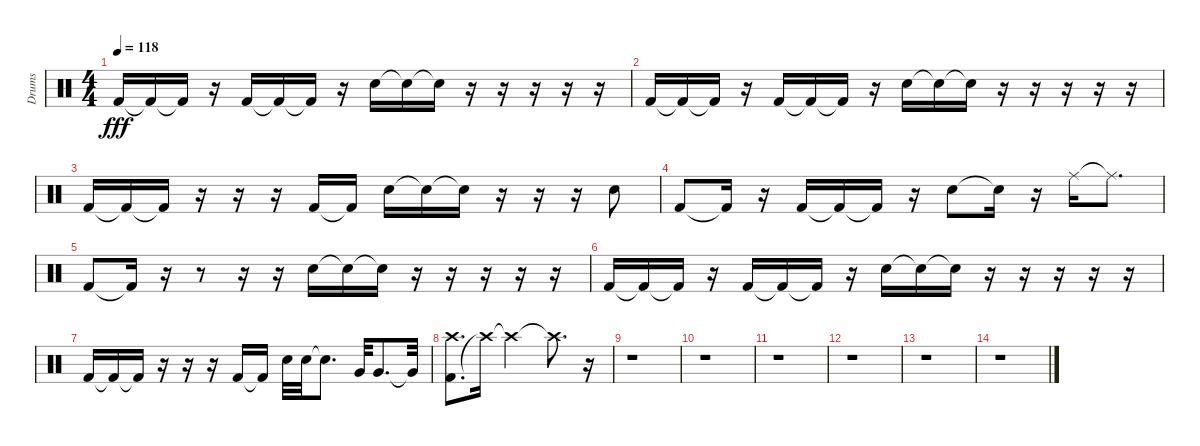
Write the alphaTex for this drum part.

\track ("Drums" "Drums") {instrument percussion}
\staff {score}
\articulation defaults
\ts (4 4)
\tempo 118
\clef neutral
\ks c "Kick (hit) 2".16{dy fff} "Kick (hit) 2"{t}.16 "Kick (hit) 2"{t}.16
r.16 "Kick (hit) 2".16 "Kick (hit) 2"{t}.16 "Kick (hit) 2"{t}.16 r.16 "Snare (hit) 2".16 "Snare (hit) 2"{t}.16 "Snare (hit) 2"{t}.16 r.16 r.16 r.16 r.16 r.16 |
"Kick (hit) 2".16 "Kick (hit) 2"{t}.16 "Kick (hit) 2"{t}.16 r.16 "Kick (hit) 2".16 "Kick (hit) 2"{t}.16 "Kick (hit) 2"{t}.16 r.16 "Snare (hit) 2".16 "Snare (hit) 2"{t}.16 "Snare (hit) 2"{t}.16 r.16 r.16 r.16 r.16 r.16 |
"Kick (hit) 2".16 "Kick (hit) 2"{t}.16 "Kick (hit) 2"{t}.16 r.16 r.16 r.16 "Kick (hit) 2".16 "Kick (hit) 2"{t}.16 "Snare (hit) 2".16 "Snare (hit) 2"{t}.16 "Snare (hit) 2"{t}.16 r.16 r.16 r.16 "Snare (hit) 2".8 |
"Kick (hit) 2".8 "Kick (hit) 2"{t}.16 r.16 "Kick (hit) 2".16 "Kick (hit) 2"{t}.16 "Kick (hit) 2"{t}.16 r.16 "Snare (hit) 2".8 "Snare (hit) 2"{t}.16 r.16 "Ride (middle)".16 "Ride (middle)"{t}.8{d} |
"Kick (hit) 2".8 "Kick (hit) 2"{t}.16 r.16 r.8 r.16 r.16 "Snare (hit) 2".16 "Snare (hit) 2"{t}.16 "Snare (hit) 2"{t}.16 r.16 r.16 r.16 r.16 r.16 |
"Kick (hit) 2".16 "Kick (hit) 2"{t}.16 "Kick (hit) 2"{t}.16 r.16 "Kick (hit) 2".16 "Kick (hit) 2"{t}.16 "Kick (hit) 2"{t}.16 r.16 "Snare (hit) 2".16 "Snare (hit) 2"{t}.16 "Snare (hit) 2"{t}.16 r.16 r.16 r.16 r.16 r.16 |
"Kick (hit) 2".16 "Kick (hit) 2"{t}.16 "Kick (hit) 2"{t}.16 r.16 r.16 r.16 "Kick (hit) 2".16 "Kick (hit) 2"{t}.16 "Snare (hit) 2".32 "Snare (hit) 2".32 "Snare (hit) 2"{t}.8{d} "Very Low Tom (hit)".32 "Very Low Tom (hit)".8{d} "Very Low Tom (hit)"{t}.32 |
("Kick (hit) 2" "Crash high (hit)").8{d} "Crash high (hit)"{t}.16 "Crash high (hit)"{t}.2 "Crash high (hit)"{t}.8{d} r.16 |
r.1 |
r.1 |
r.1 |
r.1 |
r.1 |
r.1
